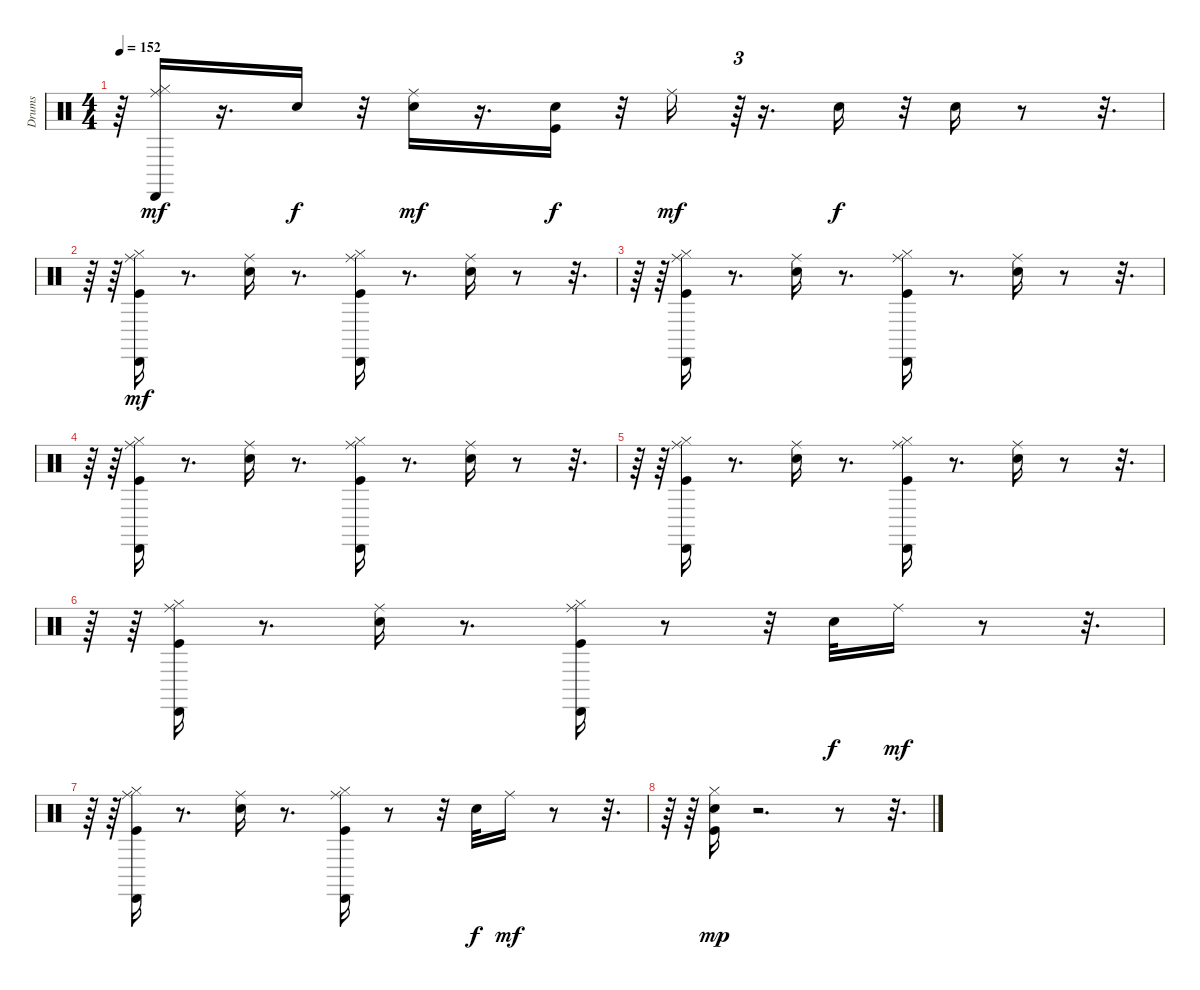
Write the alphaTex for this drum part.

\track ("Drums" "Drums") {instrument percussion}
\staff {score}
\articulation defaults
\ts (4 4)
\tempo 152
\clef neutral
\ks c
r.64{dy mf} ("Hi-Hat (closed)" "Ride (middle)" "Cabasa (hit)").16 r.16{d} "Snare (hit) 2".16{dy f} r.32 ("Snare (hit) 2" "Ride (middle)").16{dy mf} r.16{d} ("Kick (hit)" "Snare (hit) 2").16{dy f} r.32 "Ride (middle)".16{dy mf} r.64{tu (3 2)} r.16{d} "Snare (hit) 2".16{dy f} r.32 "Snare (hit) 2".16 r.8 r.32{d} |
r.64 r.64 ("Kick (hit)" "Hi-Hat (closed)" "Ride (middle)" "Cabasa (hit)").16{dy mf} r.8{d} ("Snare (hit) 2" "Ride (middle)").16 r.8{d} ("Kick (hit)" "Hi-Hat (closed)" "Ride (middle)" "Cabasa (hit)").16 r.8{d} ("Ride (middle)" "Snare (hit) 2").16 r.8 r.32{d} |
r.64 r.64 ("Kick (hit)" "Hi-Hat (closed)" "Ride (middle)" "Cabasa (hit)").16 r.8{d} ("Snare (hit) 2" "Ride (middle)").16 r.8{d} ("Kick (hit)" "Hi-Hat (closed)" "Ride (middle)" "Cabasa (hit)").16 r.8{d} ("Ride (middle)" "Snare (hit) 2").16 r.8 r.32{d} |
r.64 r.64 ("Kick (hit)" "Hi-Hat (closed)" "Ride (middle)" "Cabasa (hit)").16 r.8{d} ("Ride (middle)" "Snare (hit) 2").16 r.8{d} ("Kick (hit)" "Hi-Hat (closed)" "Ride (middle)" "Cabasa (hit)").16 r.8{d} ("Ride (middle)" "Snare (hit) 2").16 r.8 r.32{d} |
r.64 r.64 ("Kick (hit)" "Hi-Hat (closed)" "Ride (middle)" "Cabasa (hit)").16 r.8{d} ("Ride (middle)" "Snare (hit) 2").16 r.8{d} ("Kick (hit)" "Hi-Hat (closed)" "Ride (middle)" "Cabasa (hit)").16 r.8{d} ("Snare (hit) 2" "Ride (middle)").16 r.8 r.32{d} |
r.64 r.64 ("Kick (hit)" "Hi-Hat (closed)" "Ride (middle)" "Cabasa (hit)").16 r.8{d} ("Snare (hit) 2" "Ride (middle)").16 r.8{d} ("Kick (hit)" "Hi-Hat (closed)" "Ride (middle)" "Cabasa (hit)").16 r.8 r.32 "Snare (hit) 2".32{dy f} "Ride (middle)".16{dy mf} r.8 r.32{d} |
r.64 r.64 ("Kick (hit)" "Hi-Hat (closed)" "Ride (middle)" "Cabasa (hit)").16 r.8{d} ("Snare (hit) 2" "Ride (middle)").16 r.8{d} ("Kick (hit)" "Hi-Hat (closed)" "Ride (middle)" "Cabasa (hit)").16 r.8 r.32 "Snare (hit) 2".32{dy f} "Ride (middle)".16{dy mf} r.8 r.32{d} |
r.64 r.64 ("Kick (hit)" "Hi-Hat (closed)" "Snare (hit) 2").16{dy mp} r.2{d} r.8 r.32{d}
